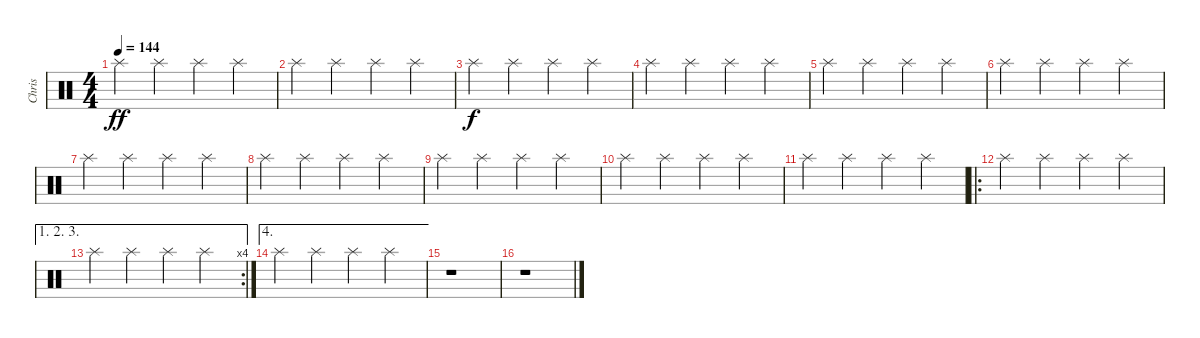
\track ("Chris" "Chris") {instrument percussion}
\staff {score}
\articulation defaults
\ts (4 4)
\tempo 144
\clef neutral
\ks c "Splash (hit)".4{dy ff} "Splash (hit)".4 "Splash (hit)".4 "Splash (hit)".4
|
"Splash (hit)".4 "Splash (hit)".4 "Splash (hit)".4 "Splash (hit)".4 |
"Splash (hit)".4{dy f} "Splash (hit)".4 "Splash (hit)".4 "Splash (hit)".4 |
"Splash (hit)".4 "Splash (hit)".4 "Splash (hit)".4 "Splash (hit)".4 |
"Splash (hit)".4 "Splash (hit)".4 "Splash (hit)".4 "Splash (hit)".4 |
"Splash (hit)".4 "Splash (hit)".4 "Splash (hit)".4 "Splash (hit)".4 |
"Splash (hit)".4 "Splash (hit)".4 "Splash (hit)".4 "Splash (hit)".4 |
"Splash (hit)".4 "Splash (hit)".4 "Splash (hit)".4 "Splash (hit)".4 |
"Splash (hit)".4 "Splash (hit)".4 "Splash (hit)".4 "Splash (hit)".4 |
"Splash (hit)".4 "Splash (hit)".4 "Splash (hit)".4 "Splash (hit)".4 |
"Splash (hit)".4 "Splash (hit)".4 "Splash (hit)".4 "Splash (hit)".4 |
\ro "Splash (hit)".4 "Splash (hit)".4 "Splash (hit)".4 "Splash (hit)".4
|
\ae (1 2 3)
\rc 4 "Splash (hit)".4 "Splash (hit)".4 "Splash (hit)".4 "Splash (hit)".4
|
\ae 4 "Splash (hit)".4 "Splash (hit)".4 "Splash (hit)".4 "Splash (hit)".4
|
r.1 |
r.1
